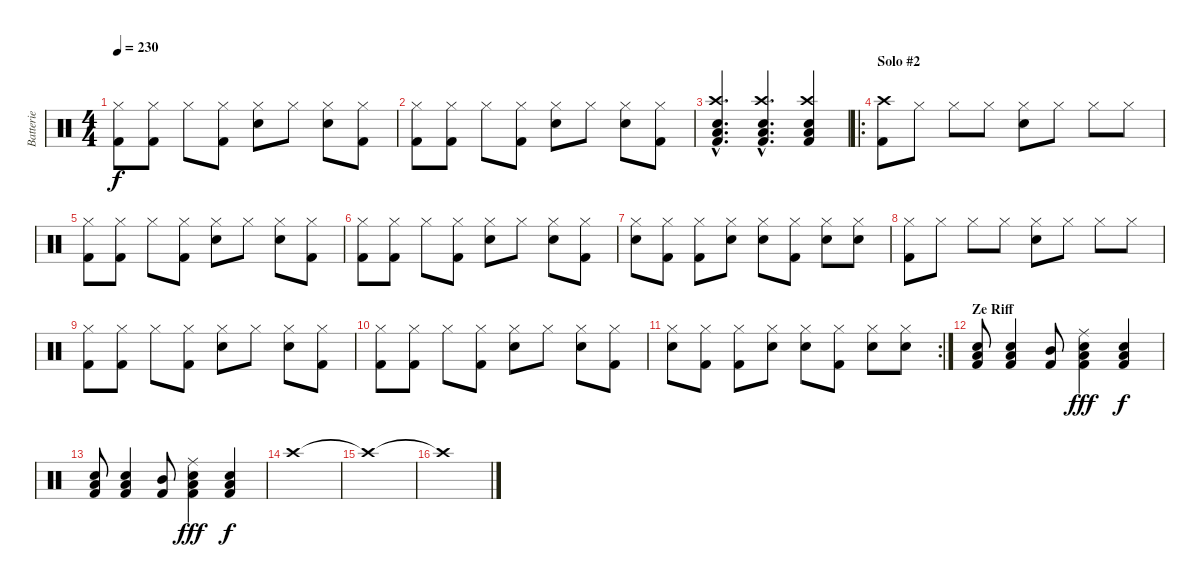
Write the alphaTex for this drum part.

\track ("Batterie" "Batterie") {instrument percussion}
\staff {score}
\articulation defaults
\ts (4 4)
\tempo 230
\clef neutral
\ks c
("Hi-Hat (closed)" "Kick (hit) 2").8{dy f} ("Hi-Hat (closed)" "Kick (hit) 2").8 "Hi-Hat (closed)".8 ("Hi-Hat (closed)" "Kick (hit) 2").8 ("Hi-Hat (closed)" "Snare (hit) 2").8 "Hi-Hat (closed)".8 ("Hi-Hat (closed)" "Snare (hit) 2").8 ("Hi-Hat (closed)" "Kick (hit) 2").8 |
("Hi-Hat (closed)" "Kick (hit) 2").8 ("Hi-Hat (closed)" "Kick (hit) 2").8 "Hi-Hat (closed)".8 ("Hi-Hat (closed)" "Kick (hit) 2").8 ("Hi-Hat (closed)" "Snare (hit) 2").8 "Hi-Hat (closed)".8 ("Hi-Hat (closed)" "Snare (hit) 2").8 ("Hi-Hat (closed)" "Kick (hit) 2").8 |
("Crash high (hit)"{hac} "Snare (hit) 2"{hac} "Low Floor Tom (hit)"{hac} "Kick (hit) 2"{hac}).4{d} ("Crash high (hit)"{hac} "Snare (hit) 2"{hac} "Low Floor Tom (hit)"{hac} "Kick (hit) 2"{hac}).4{d} ("Crash high (hit)" "Snare (hit) 2" "Low Floor Tom (hit)" "Kick (hit) 2").4 |
\ro
\section ("" "Solo #2")
("Crash high (hit)" "Kick (hit) 2").8 "Hi-Hat (closed)".8 "Hi-Hat (closed)".8 "Hi-Hat (closed)".8 ("Hi-Hat (closed)" "Snare (hit) 2").8 "Hi-Hat (closed)".8 "Hi-Hat (closed)".8 "Hi-Hat (closed)".8 |
("Hi-Hat (closed)" "Kick (hit) 2").8 ("Hi-Hat (closed)" "Kick (hit) 2").8 "Hi-Hat (closed)".8 ("Hi-Hat (closed)" "Kick (hit) 2").8 ("Hi-Hat (closed)" "Snare (hit) 2").8 "Hi-Hat (closed)".8 ("Hi-Hat (closed)" "Snare (hit) 2").8 ("Hi-Hat (closed)" "Kick (hit) 2").8 |
("Hi-Hat (closed)" "Kick (hit) 2").8 ("Hi-Hat (closed)" "Kick (hit) 2").8 "Hi-Hat (closed)".8 ("Hi-Hat (closed)" "Kick (hit) 2").8 ("Hi-Hat (closed)" "Snare (hit) 2").8 "Hi-Hat (closed)".8 ("Hi-Hat (closed)" "Snare (hit) 2").8 ("Hi-Hat (closed)" "Kick (hit) 2").8 |
("Hi-Hat (closed)" "Snare (hit) 2").8 ("Hi-Hat (closed)" "Kick (hit) 2").8 ("Hi-Hat (closed)" "Kick (hit) 2").8 ("Hi-Hat (closed)" "Snare (hit) 2").8 ("Hi-Hat (closed)" "Snare (hit) 2").8 ("Hi-Hat (closed)" "Kick (hit) 2").8 ("Hi-Hat (closed)" "Snare (hit) 2").8 ("Hi-Hat (closed)" "Snare (hit) 2").8 |
("Hi-Hat (closed)" "Kick (hit) 2").8 "Hi-Hat (closed)".8 "Hi-Hat (closed)".8 "Hi-Hat (closed)".8 ("Hi-Hat (closed)" "Snare (hit) 2").8 "Hi-Hat (closed)".8 "Hi-Hat (closed)".8 "Hi-Hat (closed)".8 |
("Hi-Hat (closed)" "Kick (hit) 2").8 ("Hi-Hat (closed)" "Kick (hit) 2").8 "Hi-Hat (closed)".8 ("Hi-Hat (closed)" "Kick (hit) 2").8 ("Hi-Hat (closed)" "Snare (hit) 2").8 "Hi-Hat (closed)".8 ("Hi-Hat (closed)" "Snare (hit) 2").8 ("Hi-Hat (closed)" "Kick (hit) 2").8 |
("Hi-Hat (closed)" "Kick (hit) 2").8 ("Hi-Hat (closed)" "Kick (hit) 2").8 "Hi-Hat (closed)".8 ("Hi-Hat (closed)" "Kick (hit) 2").8 ("Hi-Hat (closed)" "Snare (hit) 2").8 "Hi-Hat (closed)".8 ("Hi-Hat (closed)" "Snare (hit) 2").8 ("Hi-Hat (closed)" "Kick (hit) 2").8 |
\rc 2
("Hi-Hat (closed)" "Snare (hit) 2").8 ("Hi-Hat (closed)" "Kick (hit) 2").8 ("Hi-Hat (closed)" "Kick (hit) 2").8 ("Hi-Hat (closed)" "Snare (hit) 2").8 ("Hi-Hat (closed)" "Snare (hit) 2").8 ("Hi-Hat (closed)" "Kick (hit) 2").8 ("Hi-Hat (closed)" "Snare (hit) 2").8 ("Hi-Hat (closed)" "Snare (hit) 2").8 |
\section ("" "Ze Riff")
("Low Floor Tom (hit)" "Snare (hit) 2" "Kick (hit) 2").8 ("Low Floor Tom (hit)" "Snare (hit) 2" "Kick (hit) 2").4 ("Mid Tom (hit)" "Kick (hit) 2").8 ("Ride (middle)" "Low Floor Tom (hit)" "Snare (hit) 2" "Kick (hit) 2").4{dy fff} ("Low Floor Tom (hit)" "Snare (hit) 2" "Kick (hit) 2").4{dy f} |
("Low Floor Tom (hit)" "Snare (hit) 2" "Kick (hit) 2").8 ("Low Floor Tom (hit)" "Snare (hit) 2" "Kick (hit) 2").4 ("Mid Tom (hit)" "Kick (hit) 2").8 ("Ride (middle)" "Low Floor Tom (hit)" "Snare (hit) 2" "Kick (hit) 2").4{dy fff} ("Low Floor Tom (hit)" "Snare (hit) 2" "Kick (hit) 2").4{dy f} |
"Crash high (hit)".1 |
"Crash high (hit)"{t}.1 |
"Crash high (hit)"{t}.1{volume 2}
